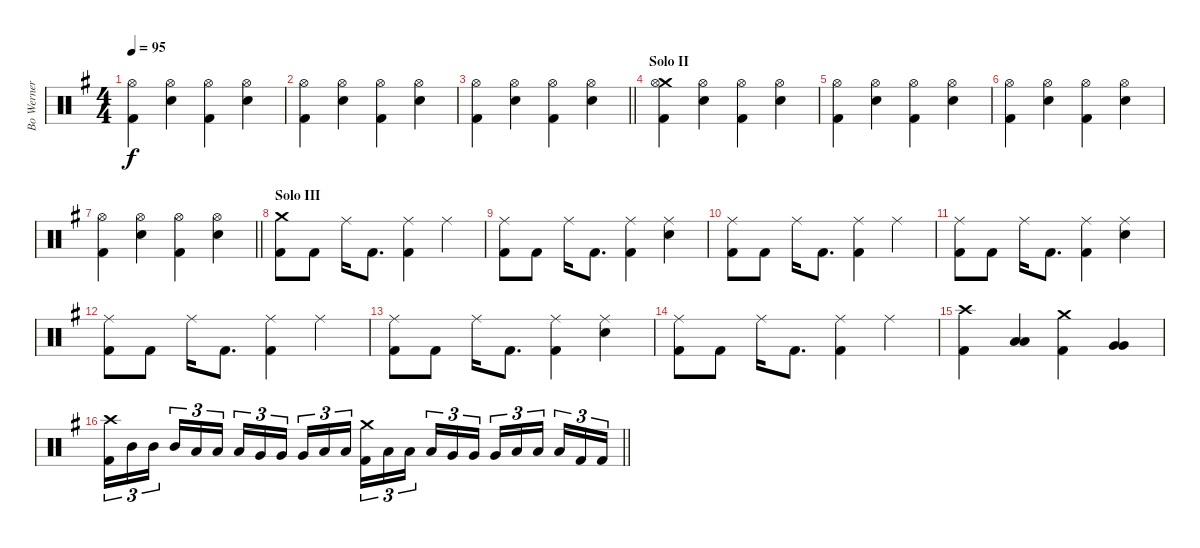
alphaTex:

\track ("Bo Werner" "Bo Werner") {instrument percussion}
\staff {score}
\articulation defaults
\ts (4 4)
\tempo 95
\clef neutral
\ks g
("Hi-Hat (open)" "Kick (hit) 2").4{dy f} ("Hi-Hat (open)" "Snare (hit) 2").4 ("Hi-Hat (open)" "Kick (hit) 2").4 ("Hi-Hat (open)" "Snare (hit) 2").4 |
("Hi-Hat (open)" "Kick (hit) 2").4 ("Hi-Hat (open)" "Snare (hit) 2").4 ("Hi-Hat (open)" "Kick (hit) 2").4 ("Hi-Hat (open)" "Snare (hit) 2").4 |
\barLineRight lightlight
("Hi-Hat (open)" "Kick (hit) 2").4 ("Hi-Hat (open)" "Snare (hit) 2").4 ("Hi-Hat (open)" "Kick (hit) 2").4 ("Hi-Hat (open)" "Snare (hit) 2").4 |
\section ("" "Solo II")
("Crash medium (hit)" "Hi-Hat (open)" "Kick (hit) 2").4 ("Hi-Hat (open)" "Snare (hit) 2").4 ("Hi-Hat (open)" "Kick (hit) 2").4 ("Hi-Hat (open)" "Snare (hit) 2").4 |
("Hi-Hat (open)" "Kick (hit) 2").4 ("Hi-Hat (open)" "Snare (hit) 2").4 ("Hi-Hat (open)" "Kick (hit) 2").4 ("Hi-Hat (open)" "Snare (hit) 2").4 |
("Hi-Hat (open)" "Kick (hit) 2").4 ("Hi-Hat (open)" "Snare (hit) 2").4 ("Hi-Hat (open)" "Kick (hit) 2").4 ("Hi-Hat (open)" "Snare (hit) 2").4 |
\barLineRight lightlight
("Hi-Hat (open)" "Kick (hit) 2").4 ("Hi-Hat (open)" "Snare (hit) 2").4 ("Hi-Hat (open)" "Kick (hit) 2").4 ("Hi-Hat (open)" "Snare (hit) 2").4 |
\section ("" "Solo III")
("Crash medium (hit)" "Kick (hit) 2").8 "Kick (hit) 2".8 "Ride (middle)".16 "Kick (hit) 2".8{d} ("Ride (middle)" "Kick (hit) 2").4 "Ride (middle)".4 |
("Ride (middle)" "Kick (hit) 2").8 "Kick (hit) 2".8 "Ride (middle)".16 "Kick (hit) 2".8{d} ("Ride (middle)" "Kick (hit) 2").4 ("Ride (middle)" "Snare (hit) 2").4 |
("Ride (middle)" "Kick (hit) 2").8 "Kick (hit) 2".8 "Ride (middle)".16 "Kick (hit) 2".8{d} ("Ride (middle)" "Kick (hit) 2").4 "Ride (middle)".4 |
("Ride (middle)" "Kick (hit) 2").8 "Kick (hit) 2".8 "Ride (middle)".16 "Kick (hit) 2".8{d} ("Ride (middle)" "Kick (hit) 2").4 ("Ride (middle)" "Snare (hit) 2").4 |
("Ride (middle)" "Kick (hit) 2").8 "Kick (hit) 2".8 "Ride (middle)".16 "Kick (hit) 2".8{d} ("Ride (middle)" "Kick (hit) 2").4 "Ride (middle)".4 |
("Ride (middle)" "Kick (hit) 2").8 "Kick (hit) 2".8 "Ride (middle)".16 "Kick (hit) 2".8{d} ("Ride (middle)" "Kick (hit) 2").4 ("Ride (middle)" "Snare (hit) 2").4 |
("Ride (middle)" "Kick (hit) 2").8 "Kick (hit) 2".8 "Ride (middle)".16 "Kick (hit) 2".8{d} ("Ride (middle)" "Kick (hit) 2").4 "Ride (middle)".4 |
("Crash high (hit)" "Kick (hit) 2").4 ("Low Tom (hit)" "Low Tom (hit)").4 ("Crash medium (hit)" "Kick (hit) 2").4 ("Very Low Tom (hit)" "Very Low Tom (hit)").4 |
\barLineRight lightlight
("Crash high (hit)" "Kick (hit) 2").16{tu (3 2)} "Mid Tom (hit)".16{tu (3 2)} "Mid Tom (hit)".16{tu (3 2) beam splitsecondary} "Mid Tom (hit)".16{tu (3 2)} "Low Tom (hit)".16{tu (3 2)} "Low Tom (hit)".16{tu (3 2)} "Low Tom (hit)".16{tu (3 2)} "Very Low Tom (hit)".16{tu (3 2)} "Very Low Tom (hit)".16{tu (3 2) beam splitsecondary} "Very Low Tom (hit)".16{tu (3 2)} "Low Floor Tom (hit)".16{tu (3 2)} "Low Floor Tom (hit)".16{tu (3 2)} ("Crash medium (hit)" "Kick (hit) 2").16{tu (3 2)} "Low Tom (hit)".16{tu (3 2)} "Low Tom (hit)".16{tu (3 2) beam splitsecondary} "Low Tom (hit)".16{tu (3 2)} "Very Low Tom (hit)".16{tu (3 2)} "Very Low Tom (hit)".16{tu (3 2)} "Very Low Tom (hit)".16{tu (3 2)} "Low Floor Tom (hit)".16{tu (3 2)} "Low Floor Tom (hit)".16{tu (3 2) beam splitsecondary} "Low Floor Tom (hit)".16{tu (3 2)} "Kick (hit) 2".16{tu (3 2)} "Kick (hit) 2".16{tu (3 2)}
